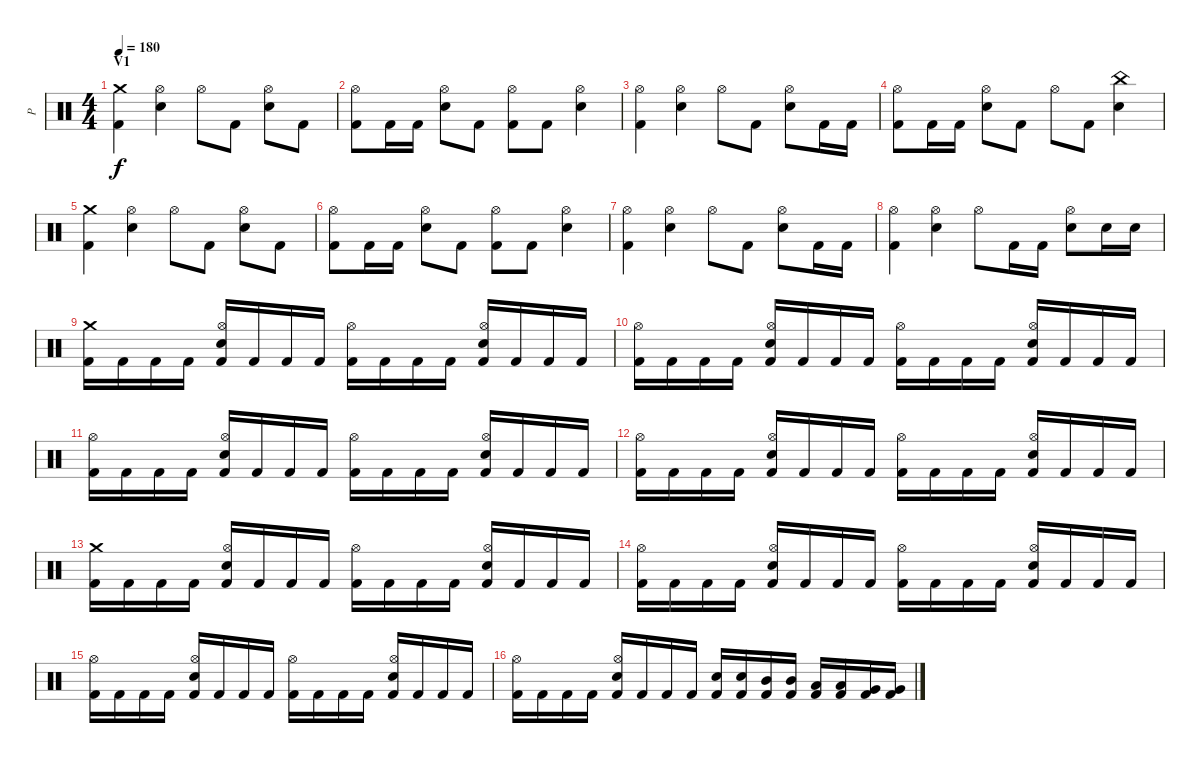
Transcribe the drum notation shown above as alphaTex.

\track ("P" "P") {instrument percussion}
\staff {score}
\articulation defaults
\ts (4 4)
\section ("" "V1")
\tempo 180
\clef neutral
\ks c
("Crash medium (hit)" "Kick (hit) 2").4{dy f} ("Hi-Hat (open)" "Electric Snare (hit)").4 "Hi-Hat (open)".8 "Kick (hit) 2".8 ("Hi-Hat (open)" "Electric Snare (hit)").8 "Kick (hit) 2".8 |
("Hi-Hat (open)" "Kick (hit) 2").8 "Kick (hit) 2".16 "Kick (hit) 2".16 ("Hi-Hat (open)" "Electric Snare (hit)").8 "Kick (hit) 2".8 ("Hi-Hat (open)" "Kick (hit) 2").8 "Kick (hit) 2".8 ("Hi-Hat (open)" "Electric Snare (hit)").4 |
("Hi-Hat (open)" "Kick (hit) 2").4 ("Hi-Hat (open)" "Electric Snare (hit)").4 "Hi-Hat (open)".8 "Kick (hit) 2".8 ("Hi-Hat (open)" "Electric Snare (hit)").8 "Kick (hit) 2".16 "Kick (hit) 2".16 |
("Hi-Hat (open)" "Kick (hit) 2").8 "Kick (hit) 2".16 "Kick (hit) 2".16 ("Hi-Hat (open)" "Electric Snare (hit)").8 "Kick (hit) 2".8 "Hi-Hat (open)".8 "Kick (hit) 2".8 ("China (hit)" "Electric Snare (hit)").4 |
("Crash medium (hit)" "Kick (hit) 2").4 ("Hi-Hat (open)" "Electric Snare (hit)").4 "Hi-Hat (open)".8 "Kick (hit) 2".8 ("Hi-Hat (open)" "Electric Snare (hit)").8 "Kick (hit) 2".8 |
("Hi-Hat (open)" "Kick (hit) 2").8 "Kick (hit) 2".16 "Kick (hit) 2".16 ("Hi-Hat (open)" "Electric Snare (hit)").8 "Kick (hit) 2".8 ("Hi-Hat (open)" "Kick (hit) 2").8 "Kick (hit) 2".8 ("Hi-Hat (open)" "Electric Snare (hit)").4 |
("Hi-Hat (open)" "Kick (hit) 2").4 ("Hi-Hat (open)" "Electric Snare (hit)").4 "Hi-Hat (open)".8 "Kick (hit) 2".8 ("Hi-Hat (open)" "Electric Snare (hit)").8 "Kick (hit) 2".16 "Kick (hit) 2".16 |
("Hi-Hat (open)" "Kick (hit) 2").4 ("Hi-Hat (open)" "Electric Snare (hit)").4 "Hi-Hat (open)".8 "Kick (hit) 2".16 "Kick (hit) 2".16 ("Hi-Hat (open)" "Electric Snare (hit)").8 "Electric Snare (hit)".16 "Electric Snare (hit)".16 |
("Crash medium (hit)" "Kick (hit) 2").16 "Kick (hit) 2".16 "Kick (hit) 2".16 "Kick (hit) 2".16 ("Hi-Hat (open)" "Electric Snare (hit)" "Kick (hit) 2").16 "Kick (hit) 2".16 "Kick (hit) 2".16 "Kick (hit) 2".16 ("Hi-Hat (open)" "Kick (hit) 2").16 "Kick (hit) 2".16 "Kick (hit) 2".16 "Kick (hit) 2".16 ("Hi-Hat (open)" "Electric Snare (hit)" "Kick (hit) 2").16 "Kick (hit) 2".16 "Kick (hit) 2".16 "Kick (hit) 2".16 |
("Hi-Hat (open)" "Kick (hit) 2").16 "Kick (hit) 2".16 "Kick (hit) 2".16 "Kick (hit) 2".16 ("Hi-Hat (open)" "Electric Snare (hit)" "Kick (hit) 2").16 "Kick (hit) 2".16 "Kick (hit) 2".16 "Kick (hit) 2".16 ("Hi-Hat (open)" "Kick (hit) 2").16 "Kick (hit) 2".16 "Kick (hit) 2".16 "Kick (hit) 2".16 ("Hi-Hat (open)" "Electric Snare (hit)" "Kick (hit) 2").16 "Kick (hit) 2".16 "Kick (hit) 2".16 "Kick (hit) 2".16 |
("Hi-Hat (open)" "Kick (hit) 2").16 "Kick (hit) 2".16 "Kick (hit) 2".16 "Kick (hit) 2".16 ("Hi-Hat (open)" "Electric Snare (hit)" "Kick (hit) 2").16 "Kick (hit) 2".16 "Kick (hit) 2".16 "Kick (hit) 2".16 ("Hi-Hat (open)" "Kick (hit) 2").16 "Kick (hit) 2".16 "Kick (hit) 2".16 "Kick (hit) 2".16 ("Hi-Hat (open)" "Electric Snare (hit)" "Kick (hit) 2").16 "Kick (hit) 2".16 "Kick (hit) 2".16 "Kick (hit) 2".16 |
("Hi-Hat (open)" "Kick (hit) 2").16 "Kick (hit) 2".16 "Kick (hit) 2".16 "Kick (hit) 2".16 ("Hi-Hat (open)" "Electric Snare (hit)" "Kick (hit) 2").16 "Kick (hit) 2".16 "Kick (hit) 2".16 "Kick (hit) 2".16 ("Hi-Hat (open)" "Kick (hit) 2").16 "Kick (hit) 2".16 "Kick (hit) 2".16 "Kick (hit) 2".16 ("Hi-Hat (open)" "Electric Snare (hit)" "Kick (hit) 2").16 "Kick (hit) 2".16 "Kick (hit) 2".16 "Kick (hit) 2".16 |
("Crash medium (hit)" "Kick (hit) 2").16 "Kick (hit) 2".16 "Kick (hit) 2".16 "Kick (hit) 2".16 ("Hi-Hat (open)" "Electric Snare (hit)" "Kick (hit) 2").16 "Kick (hit) 2".16 "Kick (hit) 2".16 "Kick (hit) 2".16 ("Hi-Hat (open)" "Kick (hit) 2").16 "Kick (hit) 2".16 "Kick (hit) 2".16 "Kick (hit) 2".16 ("Hi-Hat (open)" "Electric Snare (hit)" "Kick (hit) 2").16 "Kick (hit) 2".16 "Kick (hit) 2".16 "Kick (hit) 2".16 |
("Hi-Hat (open)" "Kick (hit) 2").16 "Kick (hit) 2".16 "Kick (hit) 2".16 "Kick (hit) 2".16 ("Hi-Hat (open)" "Electric Snare (hit)" "Kick (hit) 2").16 "Kick (hit) 2".16 "Kick (hit) 2".16 "Kick (hit) 2".16 ("Hi-Hat (open)" "Kick (hit) 2").16 "Kick (hit) 2".16 "Kick (hit) 2".16 "Kick (hit) 2".16 ("Hi-Hat (open)" "Electric Snare (hit)" "Kick (hit) 2").16 "Kick (hit) 2".16 "Kick (hit) 2".16 "Kick (hit) 2".16 |
("Hi-Hat (open)" "Kick (hit) 2").16 "Kick (hit) 2".16 "Kick (hit) 2".16 "Kick (hit) 2".16 ("Hi-Hat (open)" "Electric Snare (hit)" "Kick (hit) 2").16 "Kick (hit) 2".16 "Kick (hit) 2".16 "Kick (hit) 2".16 ("Hi-Hat (open)" "Kick (hit) 2").16 "Kick (hit) 2".16 "Kick (hit) 2".16 "Kick (hit) 2".16 ("Hi-Hat (open)" "Electric Snare (hit)" "Kick (hit) 2").16 "Kick (hit) 2".16 "Kick (hit) 2".16 "Kick (hit) 2".16 |
("Hi-Hat (open)" "Kick (hit) 2").16 "Kick (hit) 2".16 "Kick (hit) 2".16 "Kick (hit) 2".16 ("Hi-Hat (open)" "Electric Snare (hit)" "Kick (hit) 2").16 "Kick (hit) 2".16 "Kick (hit) 2".16 "Kick (hit) 2".16 ("Electric Snare (hit)" "Kick (hit) 2").16 ("Electric Snare (hit)" "Kick (hit) 2").16 ("Mid Tom (hit)" "Kick (hit) 2").16 ("Mid Tom (hit)" "Kick (hit) 2").16 ("Low Tom (hit)" "Kick (hit) 2").16 ("Low Tom (hit)" "Kick (hit) 2").16 ("Very Low Tom (hit)" "Kick (hit) 2").16 ("Very Low Tom (hit)" "Kick (hit) 2").16
